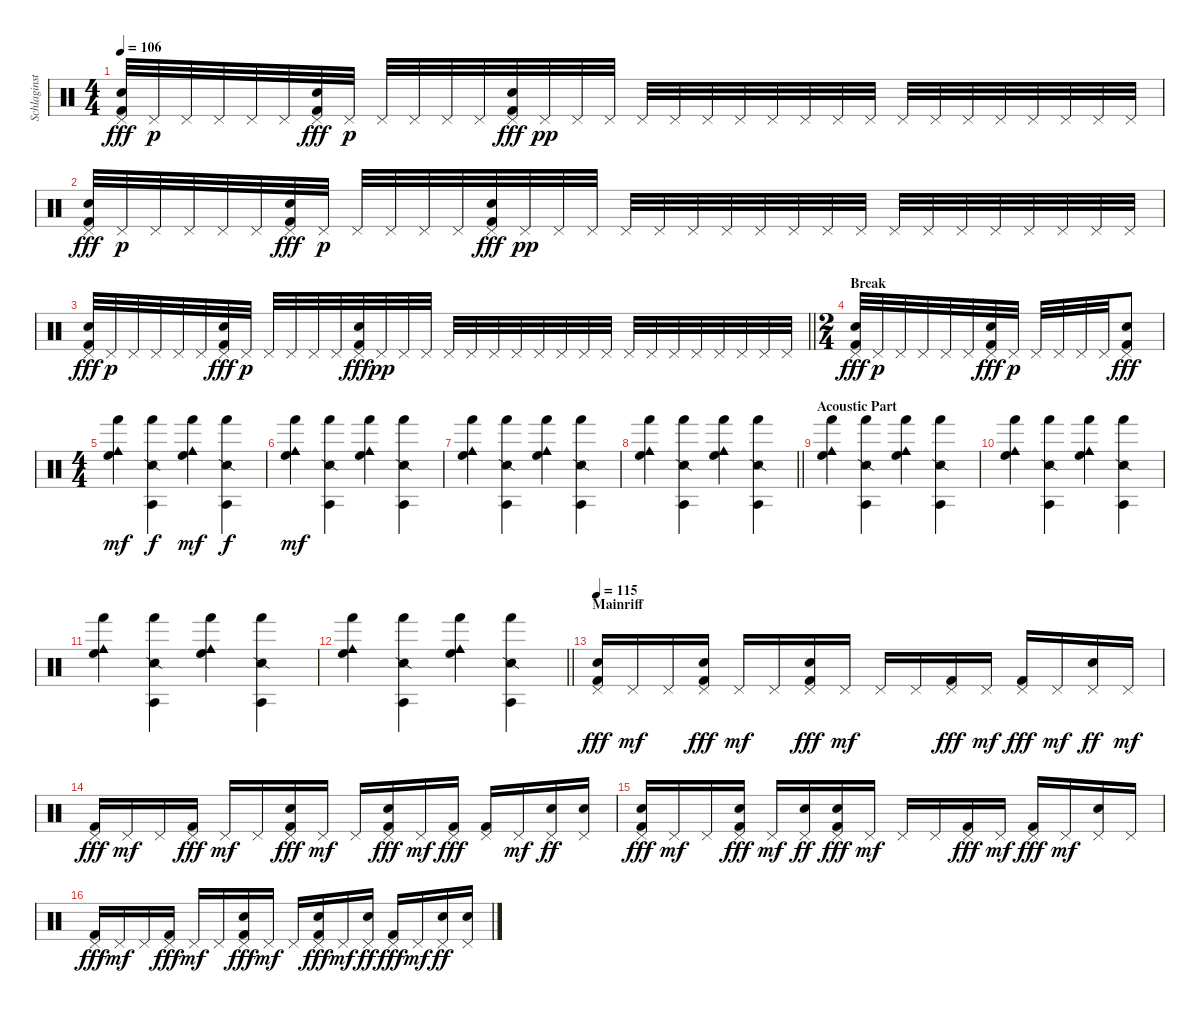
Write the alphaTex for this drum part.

\track ("Schlaginstrumente - Auswahl" "Schlaginst") {instrument percussion}
\staff {score}
\articulation defaults
\ts (4 4)
\tempo 106
\clef neutral
\ks c
("Pedal Hi-Hat (hit)" "Snare (hit) 2" "Kick (hit) 2").32{dy fff} "Pedal Hi-Hat (hit)".32{dy p} "Pedal Hi-Hat (hit)".32 "Pedal Hi-Hat (hit)".32 "Pedal Hi-Hat (hit)".32 "Pedal Hi-Hat (hit)".32 ("Pedal Hi-Hat (hit)" "Snare (hit) 2" "Kick (hit) 2").32{dy fff} "Pedal Hi-Hat (hit)".32{dy p} "Pedal Hi-Hat (hit)".32 "Pedal Hi-Hat (hit)".32 "Pedal Hi-Hat (hit)".32 "Pedal Hi-Hat (hit)".32 ("Pedal Hi-Hat (hit)" "Snare (hit) 2" "Kick (hit) 2").32{dy fff} "Pedal Hi-Hat (hit)".32{dy pp} "Pedal Hi-Hat (hit)".32 "Pedal Hi-Hat (hit)".32 "Pedal Hi-Hat (hit)".32 "Pedal Hi-Hat (hit)".32 "Pedal Hi-Hat (hit)".32 "Pedal Hi-Hat (hit)".32 "Pedal Hi-Hat (hit)".32 "Pedal Hi-Hat (hit)".32 "Pedal Hi-Hat (hit)".32 "Pedal Hi-Hat (hit)".32 "Pedal Hi-Hat (hit)".32 "Pedal Hi-Hat (hit)".32 "Pedal Hi-Hat (hit)".32 "Pedal Hi-Hat (hit)".32 "Pedal Hi-Hat (hit)".32 "Pedal Hi-Hat (hit)".32 "Pedal Hi-Hat (hit)".32 "Pedal Hi-Hat (hit)".32 |
("Pedal Hi-Hat (hit)" "Snare (hit) 2" "Kick (hit) 2").32{dy fff} "Pedal Hi-Hat (hit)".32{dy p} "Pedal Hi-Hat (hit)".32 "Pedal Hi-Hat (hit)".32 "Pedal Hi-Hat (hit)".32 "Pedal Hi-Hat (hit)".32 ("Pedal Hi-Hat (hit)" "Snare (hit) 2" "Kick (hit) 2").32{dy fff} "Pedal Hi-Hat (hit)".32{dy p} "Pedal Hi-Hat (hit)".32 "Pedal Hi-Hat (hit)".32 "Pedal Hi-Hat (hit)".32 "Pedal Hi-Hat (hit)".32 ("Pedal Hi-Hat (hit)" "Snare (hit) 2" "Kick (hit) 2").32{dy fff} "Pedal Hi-Hat (hit)".32{dy pp} "Pedal Hi-Hat (hit)".32 "Pedal Hi-Hat (hit)".32 "Pedal Hi-Hat (hit)".32 "Pedal Hi-Hat (hit)".32 "Pedal Hi-Hat (hit)".32 "Pedal Hi-Hat (hit)".32 "Pedal Hi-Hat (hit)".32 "Pedal Hi-Hat (hit)".32 "Pedal Hi-Hat (hit)".32 "Pedal Hi-Hat (hit)".32 "Pedal Hi-Hat (hit)".32 "Pedal Hi-Hat (hit)".32 "Pedal Hi-Hat (hit)".32 "Pedal Hi-Hat (hit)".32 "Pedal Hi-Hat (hit)".32 "Pedal Hi-Hat (hit)".32 "Pedal Hi-Hat (hit)".32 "Pedal Hi-Hat (hit)".32 |
\barLineRight lightlight
("Pedal Hi-Hat (hit)" "Snare (hit) 2" "Kick (hit) 2").32{dy fff} "Pedal Hi-Hat (hit)".32{dy p} "Pedal Hi-Hat (hit)".32 "Pedal Hi-Hat (hit)".32 "Pedal Hi-Hat (hit)".32 "Pedal Hi-Hat (hit)".32 ("Pedal Hi-Hat (hit)" "Snare (hit) 2" "Kick (hit) 2").32{dy fff} "Pedal Hi-Hat (hit)".32{dy p} "Pedal Hi-Hat (hit)".32 "Pedal Hi-Hat (hit)".32 "Pedal Hi-Hat (hit)".32 "Pedal Hi-Hat (hit)".32 ("Pedal Hi-Hat (hit)" "Snare (hit) 2" "Kick (hit) 2").32{dy fff} "Pedal Hi-Hat (hit)".32{dy pp} "Pedal Hi-Hat (hit)".32 "Pedal Hi-Hat (hit)".32 "Pedal Hi-Hat (hit)".32 "Pedal Hi-Hat (hit)".32 "Pedal Hi-Hat (hit)".32 "Pedal Hi-Hat (hit)".32 "Pedal Hi-Hat (hit)".32 "Pedal Hi-Hat (hit)".32 "Pedal Hi-Hat (hit)".32 "Pedal Hi-Hat (hit)".32 "Pedal Hi-Hat (hit)".32 "Pedal Hi-Hat (hit)".32 "Pedal Hi-Hat (hit)".32 "Pedal Hi-Hat (hit)".32 "Pedal Hi-Hat (hit)".32 "Pedal Hi-Hat (hit)".32 "Pedal Hi-Hat (hit)".32 "Pedal Hi-Hat (hit)".32 |
\ts (2 4)
\section ("" "Break")
("Pedal Hi-Hat (hit)" "Snare (hit) 2" "Kick (hit) 2").32{dy fff} "Pedal Hi-Hat (hit)".32{dy p} "Pedal Hi-Hat (hit)".32 "Pedal Hi-Hat (hit)".32 "Pedal Hi-Hat (hit)".32 "Pedal Hi-Hat (hit)".32 ("Pedal Hi-Hat (hit)" "Snare (hit) 2" "Kick (hit) 2").32{dy fff} "Pedal Hi-Hat (hit)".32{dy p} "Pedal Hi-Hat (hit)".32 "Pedal Hi-Hat (hit)".32 "Pedal Hi-Hat (hit)".32 "Pedal Hi-Hat (hit)".32 ("Pedal Hi-Hat (hit)" "Snare (hit) 2" "Kick (hit) 2").8{dy fff} |
\ts (4 4)
("Cowbell medium (hit)" "Hand (hit)" "High Floor Tom (hit)").4{dy mf} ("Snare (side stick) 2" "Agogo tow (hit)" "Hand (hit)").4{dy f} ("Cowbell medium (hit)" "Hand (hit)" "High Floor Tom (hit)").4{dy mf} ("Snare (side stick) 2" "Agogo tow (hit)" "Hand (hit)").4{dy f} |
("Cowbell medium (hit)" "Hand (hit)" "High Floor Tom (hit)").4{dy mf} ("Snare (side stick) 2" "Agogo tow (hit)" "Hand (hit)").4 ("Cowbell medium (hit)" "Hand (hit)" "High Floor Tom (hit)").4 ("Snare (side stick) 2" "Agogo tow (hit)" "Hand (hit)").4 |
("Cowbell medium (hit)" "Hand (hit)" "High Floor Tom (hit)").4 ("Snare (side stick) 2" "Agogo tow (hit)" "Hand (hit)").4 ("Cowbell medium (hit)" "Hand (hit)" "High Floor Tom (hit)").4 ("Snare (side stick) 2" "Agogo tow (hit)" "Hand (hit)").4 |
\barLineRight lightlight
("Cowbell medium (hit)" "Hand (hit)" "High Floor Tom (hit)").4 ("Snare (side stick) 2" "Agogo tow (hit)" "Hand (hit)").4 ("Cowbell medium (hit)" "Hand (hit)" "High Floor Tom (hit)").4 ("Snare (side stick) 2" "Agogo tow (hit)" "Hand (hit)").4 |
\section ("" "Acoustic Part")
("Cowbell medium (hit)" "Hand (hit)" "High Floor Tom (hit)").4 ("Snare (side stick) 2" "Agogo tow (hit)" "Hand (hit)").4 ("Cowbell medium (hit)" "Hand (hit)" "High Floor Tom (hit)").4 ("Snare (side stick) 2" "Agogo tow (hit)" "Hand (hit)").4 |
("Cowbell medium (hit)" "Hand (hit)" "High Floor Tom (hit)").4 ("Snare (side stick) 2" "Agogo tow (hit)" "Hand (hit)").4 ("Cowbell medium (hit)" "Hand (hit)" "High Floor Tom (hit)").4 ("Snare (side stick) 2" "Agogo tow (hit)" "Hand (hit)").4 |
("Cowbell medium (hit)" "Hand (hit)" "High Floor Tom (hit)").4 ("Snare (side stick) 2" "Agogo tow (hit)" "Hand (hit)").4 ("Cowbell medium (hit)" "Hand (hit)" "High Floor Tom (hit)").4 ("Snare (side stick) 2" "Agogo tow (hit)" "Hand (hit)").4 |
\barLineRight lightlight
("Cowbell medium (hit)" "Hand (hit)" "High Floor Tom (hit)").4 ("Snare (side stick) 2" "Agogo tow (hit)" "Hand (hit)").4 ("Cowbell medium (hit)" "Hand (hit)" "High Floor Tom (hit)").4 ("Snare (side stick) 2" "Agogo tow (hit)" "Hand (hit)").4 |
\section ("" "Mainriff")
\tempo 115
("Pedal Hi-Hat (hit)" "Snare (hit) 2" "Kick (hit) 2").16{dy fff} "Pedal Hi-Hat (hit)".16{dy mf} "Pedal Hi-Hat (hit)".16 ("Pedal Hi-Hat (hit)" "Snare (hit) 2" "Kick (hit) 2").16{dy fff} "Pedal Hi-Hat (hit)".16{dy mf} "Pedal Hi-Hat (hit)".16 ("Pedal Hi-Hat (hit)" "Snare (hit) 2" "Kick (hit) 2").16{dy fff} "Pedal Hi-Hat (hit)".16{dy mf} "Pedal Hi-Hat (hit)".16 "Pedal Hi-Hat (hit)".16 ("Pedal Hi-Hat (hit)" "Kick (hit) 2").16{dy fff} "Pedal Hi-Hat (hit)".16{dy mf} ("Pedal Hi-Hat (hit)" "Kick (hit) 2").16{dy fff} "Pedal Hi-Hat (hit)".16{dy mf} ("Pedal Hi-Hat (hit)" "Snare (hit) 2").16{dy ff} "Pedal Hi-Hat (hit)".16{dy mf} |
("Pedal Hi-Hat (hit)" "Kick (hit) 2").16{dy fff} "Pedal Hi-Hat (hit)".16{dy mf} "Pedal Hi-Hat (hit)".16 ("Pedal Hi-Hat (hit)" "Kick (hit) 2").16{dy fff} "Pedal Hi-Hat (hit)".16{dy mf} "Pedal Hi-Hat (hit)".16 ("Pedal Hi-Hat (hit)" "Snare (hit) 2" "Kick (hit) 2").16{dy fff} "Pedal Hi-Hat (hit)".16{dy mf} "Pedal Hi-Hat (hit)".16 ("Pedal Hi-Hat (hit)" "Snare (hit) 2" "Kick (hit) 2").16{dy fff} "Pedal Hi-Hat (hit)".16{dy mf} ("Pedal Hi-Hat (hit)" "Kick (hit) 2").16{dy fff} ("Pedal Hi-Hat (hit)" "Kick (hit) 2").16 "Pedal Hi-Hat (hit)".16{dy mf} ("Pedal Hi-Hat (hit)" "Snare (hit) 2").16{dy ff} ("Pedal Hi-Hat (hit)" "Snare (hit) 2").16 |
("Pedal Hi-Hat (hit)" "Snare (hit) 2" "Kick (hit) 2").16{dy fff} "Pedal Hi-Hat (hit)".16{dy mf} "Pedal Hi-Hat (hit)".16 ("Pedal Hi-Hat (hit)" "Snare (hit) 2" "Kick (hit) 2").16{dy fff} "Pedal Hi-Hat (hit)".16{dy mf} ("Pedal Hi-Hat (hit)" "Snare (hit) 2").16{dy ff} ("Pedal Hi-Hat (hit)" "Snare (hit) 2" "Kick (hit) 2").16{dy fff} "Pedal Hi-Hat (hit)".16{dy mf} "Pedal Hi-Hat (hit)".16 "Pedal Hi-Hat (hit)".16 ("Pedal Hi-Hat (hit)" "Kick (hit) 2").16{dy fff} "Pedal Hi-Hat (hit)".16{dy mf} ("Pedal Hi-Hat (hit)" "Kick (hit) 2").16{dy fff} "Pedal Hi-Hat (hit)".16{dy mf} ("Pedal Hi-Hat (hit)" "Snare (hit) 2").16 "Pedal Hi-Hat (hit)".16 |
("Pedal Hi-Hat (hit)" "Kick (hit) 2").16{dy fff} "Pedal Hi-Hat (hit)".16{dy mf} "Pedal Hi-Hat (hit)".16 ("Pedal Hi-Hat (hit)" "Kick (hit) 2").16{dy fff} "Pedal Hi-Hat (hit)".16{dy mf} "Pedal Hi-Hat (hit)".16 ("Pedal Hi-Hat (hit)" "Snare (hit) 2" "Kick (hit) 2").16{dy fff} "Pedal Hi-Hat (hit)".16{dy mf} "Pedal Hi-Hat (hit)".16 ("Pedal Hi-Hat (hit)" "Snare (hit) 2" "Kick (hit) 2").16{dy fff} "Pedal Hi-Hat (hit)".16{dy mf} ("Pedal Hi-Hat (hit)" "Snare (hit) 2").16{dy ff} ("Pedal Hi-Hat (hit)" "Kick (hit) 2").16{dy fff} "Pedal Hi-Hat (hit)".16{dy mf} ("Pedal Hi-Hat (hit)" "Snare (hit) 2").16{dy ff} ("Pedal Hi-Hat (hit)" "Snare (hit) 2").16
